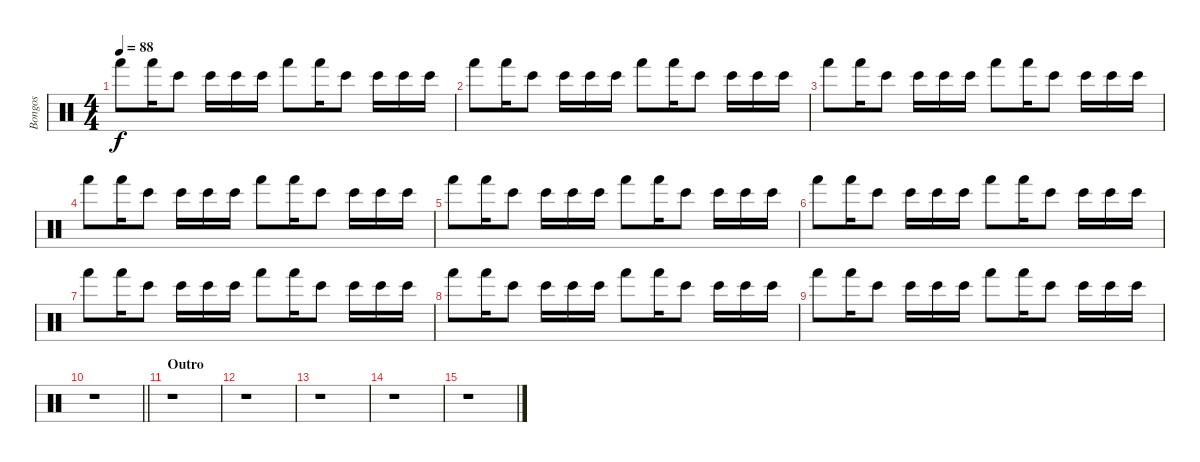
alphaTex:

\track ("Bongos" "Bongos") {instrument percussion}
\staff {score}
\articulation defaults
\ts (4 4)
\tempo 88
\clef neutral
\ks c "Hand (hit)".8{dy f} "Hand (hit)".16 "Bongo High (hit)".8 "Bongo High (hit)".16 "Bongo High (hit)".16 "Bongo High (hit)".16 "Hand (hit)".8 "Hand (hit)".16 "Bongo High (hit)".8 "Bongo High (hit)".16 "Bongo High (hit)".16 "Bongo High (hit)".16
|
"Hand (hit)".8 "Hand (hit)".16 "Bongo High (hit)".8 "Bongo High (hit)".16 "Bongo High (hit)".16 "Bongo High (hit)".16 "Hand (hit)".8 "Hand (hit)".16 "Bongo High (hit)".8 "Bongo High (hit)".16 "Bongo High (hit)".16 "Bongo High (hit)".16 |
"Hand (hit)".8 "Hand (hit)".16 "Bongo High (hit)".8 "Bongo High (hit)".16 "Bongo High (hit)".16 "Bongo High (hit)".16 "Hand (hit)".8 "Hand (hit)".16 "Bongo High (hit)".8 "Bongo High (hit)".16 "Bongo High (hit)".16 "Bongo High (hit)".16 |
"Hand (hit)".8 "Hand (hit)".16 "Bongo High (hit)".8 "Bongo High (hit)".16 "Bongo High (hit)".16 "Bongo High (hit)".16 "Hand (hit)".8 "Hand (hit)".16 "Bongo High (hit)".8 "Bongo High (hit)".16 "Bongo High (hit)".16 "Bongo High (hit)".16 |
"Hand (hit)".8 "Hand (hit)".16 "Bongo High (hit)".8 "Bongo High (hit)".16 "Bongo High (hit)".16 "Bongo High (hit)".16 "Hand (hit)".8 "Hand (hit)".16 "Bongo High (hit)".8 "Bongo High (hit)".16 "Bongo High (hit)".16 "Bongo High (hit)".16 |
"Hand (hit)".8 "Hand (hit)".16 "Bongo High (hit)".8 "Bongo High (hit)".16 "Bongo High (hit)".16 "Bongo High (hit)".16 "Hand (hit)".8 "Hand (hit)".16 "Bongo High (hit)".8 "Bongo High (hit)".16 "Bongo High (hit)".16 "Bongo High (hit)".16 |
"Hand (hit)".8 "Hand (hit)".16 "Bongo High (hit)".8 "Bongo High (hit)".16 "Bongo High (hit)".16 "Bongo High (hit)".16 "Hand (hit)".8 "Hand (hit)".16 "Bongo High (hit)".8 "Bongo High (hit)".16 "Bongo High (hit)".16 "Bongo High (hit)".16 |
"Hand (hit)".8 "Hand (hit)".16 "Bongo High (hit)".8 "Bongo High (hit)".16 "Bongo High (hit)".16 "Bongo High (hit)".16 "Hand (hit)".8 "Hand (hit)".16 "Bongo High (hit)".8 "Bongo High (hit)".16 "Bongo High (hit)".16 "Bongo High (hit)".16 |
"Hand (hit)".8 "Hand (hit)".16 "Bongo High (hit)".8 "Bongo High (hit)".16 "Bongo High (hit)".16 "Bongo High (hit)".16 "Hand (hit)".8 "Hand (hit)".16 "Bongo High (hit)".8 "Bongo High (hit)".16 "Bongo High (hit)".16 "Bongo High (hit)".16 |
\barLineRight lightlight
r.1 |
\section ("" "Outro")
r.1 |
r.1 |
r.1 |
r.1 |
r.1
